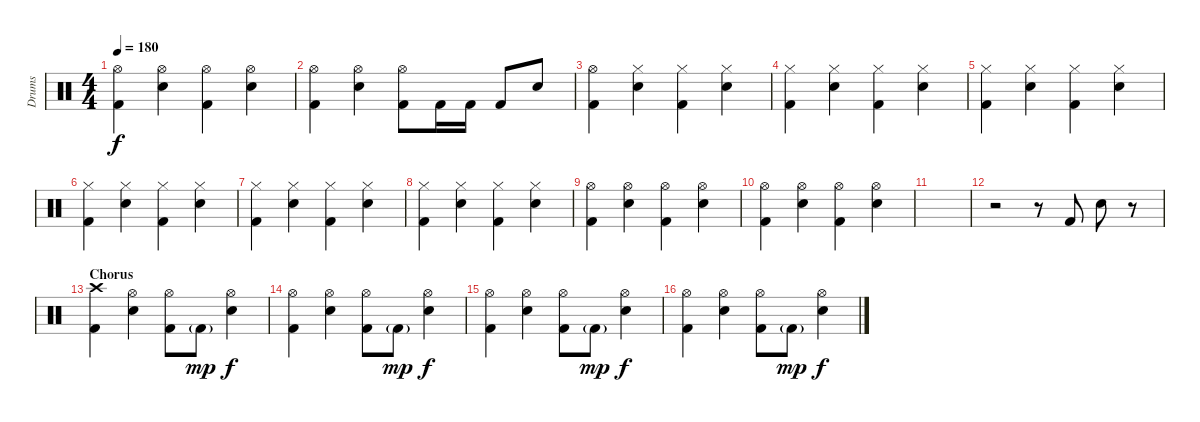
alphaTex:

\track ("Drums" "Drums") {instrument percussion}
\staff {score}
\articulation defaults
\ts (4 4)
\tempo 180
\clef neutral
\ks c
("Hi-Hat (open)" "Kick (hit) 2").4{dy f} ("Hi-Hat (open)" "Electric Snare (hit)").4 ("Hi-Hat (open)" "Kick (hit) 2").4 ("Hi-Hat (open)" "Electric Snare (hit)").4 |
("Hi-Hat (open)" "Kick (hit) 2").4 ("Hi-Hat (open)" "Electric Snare (hit)").4 ("Hi-Hat (open)" "Kick (hit) 2").8 "Kick (hit) 2".16 "Kick (hit) 2".16 "Kick (hit) 2".8 "Electric Snare (hit)".8 |
("Hi-Hat (open)" "Kick (hit) 2").4 ("Hi-Hat (closed)" "Electric Snare (hit)").4 ("Hi-Hat (closed)" "Kick (hit) 2").4 ("Hi-Hat (closed)" "Electric Snare (hit)").4 |
("Hi-Hat (closed)" "Kick (hit) 2").4 ("Hi-Hat (closed)" "Electric Snare (hit)").4 ("Hi-Hat (closed)" "Kick (hit) 2").4 ("Hi-Hat (closed)" "Electric Snare (hit)").4 |
("Hi-Hat (closed)" "Kick (hit) 2").4 ("Hi-Hat (closed)" "Electric Snare (hit)").4 ("Hi-Hat (closed)" "Kick (hit) 2").4 ("Hi-Hat (closed)" "Electric Snare (hit)").4 |
("Hi-Hat (closed)" "Kick (hit) 2").4 ("Hi-Hat (closed)" "Electric Snare (hit)").4 ("Hi-Hat (closed)" "Kick (hit) 2").4 ("Hi-Hat (closed)" "Electric Snare (hit)").4 |
("Hi-Hat (closed)" "Kick (hit) 2").4 ("Hi-Hat (closed)" "Electric Snare (hit)").4 ("Hi-Hat (closed)" "Kick (hit) 2").4 ("Hi-Hat (closed)" "Electric Snare (hit)").4 |
("Hi-Hat (closed)" "Kick (hit) 2").4 ("Hi-Hat (closed)" "Electric Snare (hit)").4 ("Hi-Hat (closed)" "Kick (hit) 2").4 ("Hi-Hat (closed)" "Electric Snare (hit)").4 |
("Hi-Hat (open)" "Kick (hit) 2").4 ("Hi-Hat (open)" "Electric Snare (hit)").4 ("Hi-Hat (open)" "Kick (hit) 2").4 ("Hi-Hat (open)" "Electric Snare (hit)").4 |
("Hi-Hat (open)" "Kick (hit) 2").4 ("Hi-Hat (open)" "Electric Snare (hit)").4 ("Hi-Hat (open)" "Kick (hit) 2").4 ("Hi-Hat (open)" "Electric Snare (hit)").4 |
|
r.2 r.8 "Kick (hit) 2".8 "Electric Snare (hit)".8 r.8 |
\section ("" "Chorus")
("Crash high (hit)" "Kick (hit) 2").4 ("Hi-Hat (open)" "Electric Snare (hit)").4 ("Hi-Hat (open)" "Kick (hit) 2").8 "Kick (hit) 2"{g}.8{dy mp} ("Hi-Hat (open)" "Electric Snare (hit)").4{dy f} |
("Hi-Hat (open)" "Kick (hit) 2").4 ("Hi-Hat (open)" "Electric Snare (hit)").4 ("Hi-Hat (open)" "Kick (hit) 2").8 "Kick (hit) 2"{g}.8{dy mp} ("Hi-Hat (open)" "Electric Snare (hit)").4{dy f} |
("Hi-Hat (open)" "Kick (hit) 2").4 ("Hi-Hat (open)" "Electric Snare (hit)").4 ("Hi-Hat (open)" "Kick (hit) 2").8 "Kick (hit) 2"{g}.8{dy mp} ("Hi-Hat (open)" "Electric Snare (hit)").4{dy f} |
("Hi-Hat (open)" "Kick (hit) 2").4 ("Hi-Hat (open)" "Electric Snare (hit)").4 ("Hi-Hat (open)" "Kick (hit) 2").8 "Kick (hit) 2"{g}.8{dy mp} ("Hi-Hat (open)" "Electric Snare (hit)").4{dy f}
